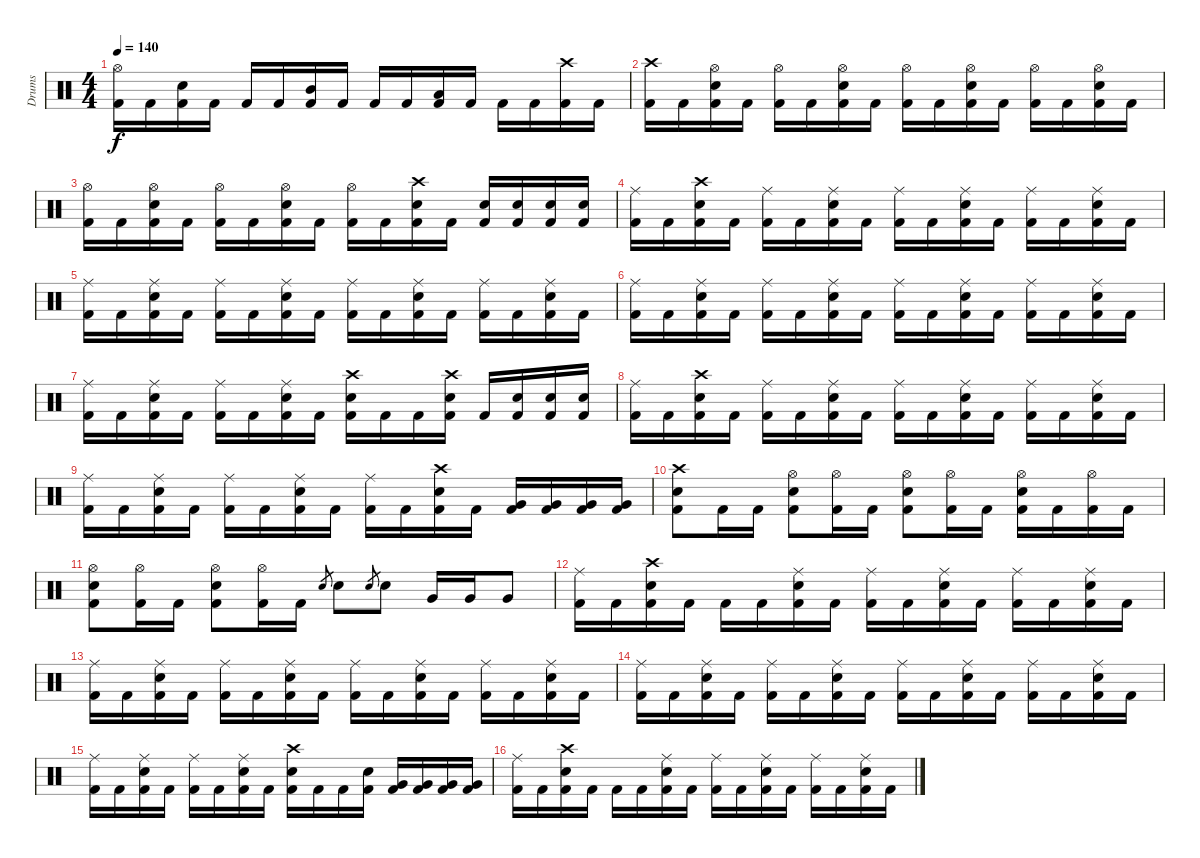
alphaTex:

\track ("Drums" "Drums") {instrument percussion}
\staff {score}
\articulation defaults
\ts (4 4)
\tempo 140
\clef neutral
\ks c
("Hi-Hat (open)" "Kick (hit) 2").16{dy f} "Kick (hit) 2".16 ("Electric Snare (hit)" "Kick (hit) 2").16 "Kick (hit) 2".16 "Kick (hit) 2".16 "Kick (hit) 2".16 ("Mid Tom (hit)" "Kick (hit) 2").16 "Kick (hit) 2".16 "Kick (hit) 2".16 "Kick (hit) 2".16 ("Low Tom (hit)" "Kick (hit) 2").16 "Kick (hit) 2".16 "Kick (hit) 2".16 "Kick (hit) 2".16 ("Crash high (hit)" "Kick (hit) 2").16 "Kick (hit) 2".16 |
("Crash high (hit)" "Kick (hit) 2").16 "Kick (hit) 2".16 ("Hi-Hat (open)" "Electric Snare (hit)" "Kick (hit) 2").16 "Kick (hit) 2".16 ("Hi-Hat (open)" "Kick (hit) 2").16 "Kick (hit) 2".16 ("Hi-Hat (open)" "Electric Snare (hit)" "Kick (hit) 2").16 "Kick (hit) 2".16 ("Hi-Hat (open)" "Kick (hit) 2").16 "Kick (hit) 2".16 ("Hi-Hat (open)" "Electric Snare (hit)" "Kick (hit) 2").16 "Kick (hit) 2".16 ("Hi-Hat (open)" "Kick (hit) 2").16 "Kick (hit) 2".16 ("Hi-Hat (open)" "Electric Snare (hit)" "Kick (hit) 2").16 "Kick (hit) 2".16 |
("Hi-Hat (open)" "Kick (hit) 2").16 "Kick (hit) 2".16 ("Hi-Hat (open)" "Electric Snare (hit)" "Kick (hit) 2").16 "Kick (hit) 2".16 ("Hi-Hat (open)" "Kick (hit) 2").16 "Kick (hit) 2".16 ("Hi-Hat (open)" "Electric Snare (hit)" "Kick (hit) 2").16 "Kick (hit) 2".16 ("Hi-Hat (open)" "Kick (hit) 2").16 "Kick (hit) 2".16 ("Crash high (hit)" "Electric Snare (hit)" "Kick (hit) 2").16 "Kick (hit) 2".16 ("Electric Snare (hit)" "Kick (hit) 2").16 ("Electric Snare (hit)" "Kick (hit) 2").16 ("Electric Snare (hit)" "Kick (hit) 2").16 ("Electric Snare (hit)" "Kick (hit) 2").16 |
("Ride (middle)" "Kick (hit) 2").16 "Kick (hit) 2".16 ("Crash high (hit)" "Electric Snare (hit)" "Kick (hit) 2").16 "Kick (hit) 2".16 ("Ride (middle)" "Kick (hit) 2").16 "Kick (hit) 2".16 ("Ride (middle)" "Electric Snare (hit)" "Kick (hit) 2").16 "Kick (hit) 2".16 ("Ride (middle)" "Kick (hit) 2").16 "Kick (hit) 2".16 ("Ride (middle)" "Electric Snare (hit)" "Kick (hit) 2").16 "Kick (hit) 2".16 ("Ride (middle)" "Kick (hit) 2").16 "Kick (hit) 2".16 ("Ride (middle)" "Electric Snare (hit)" "Kick (hit) 2").16 "Kick (hit) 2".16 |
("Ride (middle)" "Kick (hit) 2").16 "Kick (hit) 2".16 ("Ride (middle)" "Electric Snare (hit)" "Kick (hit) 2").16 "Kick (hit) 2".16 ("Ride (middle)" "Kick (hit) 2").16 "Kick (hit) 2".16 ("Ride (middle)" "Electric Snare (hit)" "Kick (hit) 2").16 "Kick (hit) 2".16 ("Ride (middle)" "Kick (hit) 2").16 "Kick (hit) 2".16 ("Ride (middle)" "Electric Snare (hit)" "Kick (hit) 2").16 "Kick (hit) 2".16 ("Ride (middle)" "Kick (hit) 2").16 "Kick (hit) 2".16 ("Ride (middle)" "Electric Snare (hit)" "Kick (hit) 2").16 "Kick (hit) 2".16 |
("Ride (middle)" "Kick (hit) 2").16 "Kick (hit) 2".16 ("Ride (middle)" "Electric Snare (hit)" "Kick (hit) 2").16 "Kick (hit) 2".16 ("Ride (middle)" "Kick (hit) 2").16 "Kick (hit) 2".16 ("Ride (middle)" "Electric Snare (hit)" "Kick (hit) 2").16 "Kick (hit) 2".16 ("Ride (middle)" "Kick (hit) 2").16 "Kick (hit) 2".16 ("Ride (middle)" "Electric Snare (hit)" "Kick (hit) 2").16 "Kick (hit) 2".16 ("Ride (middle)" "Kick (hit) 2").16 "Kick (hit) 2".16 ("Ride (middle)" "Electric Snare (hit)" "Kick (hit) 2").16 "Kick (hit) 2".16 |
("Ride (middle)" "Kick (hit) 2").16 "Kick (hit) 2".16 ("Ride (middle)" "Electric Snare (hit)" "Kick (hit) 2").16 "Kick (hit) 2".16 ("Ride (middle)" "Kick (hit) 2").16 "Kick (hit) 2".16 ("Ride (middle)" "Electric Snare (hit)" "Kick (hit) 2").16 "Kick (hit) 2".16 ("Crash high (hit)" "Electric Snare (hit)" "Kick (hit) 2").16 "Kick (hit) 2".16 "Kick (hit) 2".16 ("Crash high (hit)" "Electric Snare (hit)" "Kick (hit) 2").16 "Kick (hit) 2".16 ("Electric Snare (hit)" "Kick (hit) 2").16 ("Electric Snare (hit)" "Kick (hit) 2").16 ("Electric Snare (hit)" "Kick (hit) 2").16 |
("Ride (middle)" "Kick (hit) 2").16 "Kick (hit) 2".16 ("Crash high (hit)" "Electric Snare (hit)" "Kick (hit) 2").16 "Kick (hit) 2".16 ("Ride (middle)" "Kick (hit) 2").16 "Kick (hit) 2".16 ("Ride (middle)" "Electric Snare (hit)" "Kick (hit) 2").16 "Kick (hit) 2".16 ("Ride (middle)" "Kick (hit) 2").16 "Kick (hit) 2".16 ("Ride (middle)" "Electric Snare (hit)" "Kick (hit) 2").16 "Kick (hit) 2".16 ("Ride (middle)" "Kick (hit) 2").16 "Kick (hit) 2".16 ("Ride (middle)" "Electric Snare (hit)" "Kick (hit) 2").16 "Kick (hit) 2".16 |
("Ride (middle)" "Kick (hit) 2").16 "Kick (hit) 2".16 ("Ride (middle)" "Electric Snare (hit)" "Kick (hit) 2").16 "Kick (hit) 2".16 ("Ride (middle)" "Kick (hit) 2").16 "Kick (hit) 2".16 ("Ride (middle)" "Electric Snare (hit)" "Kick (hit) 2").16 "Kick (hit) 2".16 ("Ride (middle)" "Kick (hit) 2").16 "Kick (hit) 2".16 ("Crash high (hit)" "Electric Snare (hit)" "Kick (hit) 2").16 "Kick (hit) 2".16 ("Very Low Tom (hit)" "Kick (hit) 2").16 ("Very Low Tom (hit)" "Kick (hit) 2").16 ("Very Low Tom (hit)" "Kick (hit) 2").16 ("Very Low Tom (hit)" "Kick (hit) 2").16 |
("Crash high (hit)" "Electric Snare (hit)" "Kick (hit) 2").8 "Kick (hit) 2".16 "Kick (hit) 2".16 ("Hi-Hat (open)" "Electric Snare (hit)" "Kick (hit) 2").8 ("Hi-Hat (open)" "Kick (hit) 2").16 "Kick (hit) 2".16 ("Hi-Hat (open)" "Electric Snare (hit)" "Kick (hit) 2").8 ("Hi-Hat (open)" "Kick (hit) 2").16 "Kick (hit) 2".16 ("Hi-Hat (open)" "Electric Snare (hit)" "Kick (hit) 2").16 "Kick (hit) 2".16 ("Hi-Hat (open)" "Kick (hit) 2").16 "Kick (hit) 2".16 |
("Hi-Hat (open)" "Electric Snare (hit)" "Kick (hit) 2").8 ("Hi-Hat (open)" "Kick (hit) 2").16 "Kick (hit) 2".16 ("Hi-Hat (open)" "Electric Snare (hit)" "Kick (hit) 2").8 ("Hi-Hat (open)" "Kick (hit) 2").16 "Kick (hit) 2".16 "Electric Snare (hit)".8{gr} "Electric Snare (hit)".8 "Electric Snare (hit)".8{gr} "Electric Snare (hit)".8 "Very Low Tom (hit)".16 "Very Low Tom (hit)".16 "Very Low Tom (hit)".8 |
("Ride (middle)" "Kick (hit) 2").16 "Kick (hit) 2".16 ("Crash high (hit)" "Electric Snare (hit)" "Kick (hit) 2").16 "Kick (hit) 2".16 "Kick (hit) 2".16 "Kick (hit) 2".16 ("Ride (middle)" "Electric Snare (hit)" "Kick (hit) 2").16 "Kick (hit) 2".16 ("Ride (middle)" "Kick (hit) 2").16 "Kick (hit) 2".16 ("Ride (middle)" "Electric Snare (hit)" "Kick (hit) 2").16 "Kick (hit) 2".16 ("Ride (middle)" "Kick (hit) 2").16 "Kick (hit) 2".16 ("Ride (middle)" "Electric Snare (hit)" "Kick (hit) 2").16 "Kick (hit) 2".16 |
("Ride (middle)" "Kick (hit) 2").16 "Kick (hit) 2".16 ("Ride (middle)" "Electric Snare (hit)" "Kick (hit) 2").16 "Kick (hit) 2".16 ("Ride (middle)" "Kick (hit) 2").16 "Kick (hit) 2".16 ("Ride (middle)" "Electric Snare (hit)" "Kick (hit) 2").16 "Kick (hit) 2".16 ("Ride (middle)" "Kick (hit) 2").16 "Kick (hit) 2".16 ("Ride (middle)" "Electric Snare (hit)" "Kick (hit) 2").16 "Kick (hit) 2".16 ("Ride (middle)" "Kick (hit) 2").16 "Kick (hit) 2".16 ("Ride (middle)" "Electric Snare (hit)" "Kick (hit) 2").16 "Kick (hit) 2".16 |
("Ride (middle)" "Kick (hit) 2").16 "Kick (hit) 2".16 ("Ride (middle)" "Electric Snare (hit)" "Kick (hit) 2").16 "Kick (hit) 2".16 ("Ride (middle)" "Kick (hit) 2").16 "Kick (hit) 2".16 ("Ride (middle)" "Electric Snare (hit)" "Kick (hit) 2").16 "Kick (hit) 2".16 ("Ride (middle)" "Kick (hit) 2").16 "Kick (hit) 2".16 ("Ride (middle)" "Electric Snare (hit)" "Kick (hit) 2").16 "Kick (hit) 2".16 ("Ride (middle)" "Kick (hit) 2").16 "Kick (hit) 2".16 ("Ride (middle)" "Electric Snare (hit)" "Kick (hit) 2").16 "Kick (hit) 2".16 |
("Ride (middle)" "Kick (hit) 2").16 "Kick (hit) 2".16 ("Ride (middle)" "Electric Snare (hit)" "Kick (hit) 2").16 "Kick (hit) 2".16 ("Ride (middle)" "Kick (hit) 2").16 "Kick (hit) 2".16 ("Ride (middle)" "Electric Snare (hit)" "Kick (hit) 2").16 "Kick (hit) 2".16 ("Crash high (hit)" "Electric Snare (hit)" "Kick (hit) 2").16 "Kick (hit) 2".16 "Kick (hit) 2".16 ("Electric Snare (hit)" "Kick (hit) 2").16 ("Very Low Tom (hit)" "Kick (hit) 2").16 ("Very Low Tom (hit)" "Kick (hit) 2").16 ("Very Low Tom (hit)" "Kick (hit) 2").16 ("Very Low Tom (hit)" "Kick (hit) 2").16 |
("Ride (middle)" "Kick (hit) 2").16 "Kick (hit) 2".16 ("Crash high (hit)" "Electric Snare (hit)" "Kick (hit) 2").16 "Kick (hit) 2".16 "Kick (hit) 2".16 "Kick (hit) 2".16 ("Ride (middle)" "Electric Snare (hit)" "Kick (hit) 2").16 "Kick (hit) 2".16 ("Ride (middle)" "Kick (hit) 2").16 "Kick (hit) 2".16 ("Ride (middle)" "Electric Snare (hit)" "Kick (hit) 2").16 "Kick (hit) 2".16 ("Ride (middle)" "Kick (hit) 2").16 "Kick (hit) 2".16 ("Ride (middle)" "Electric Snare (hit)" "Kick (hit) 2").16 "Kick (hit) 2".16
